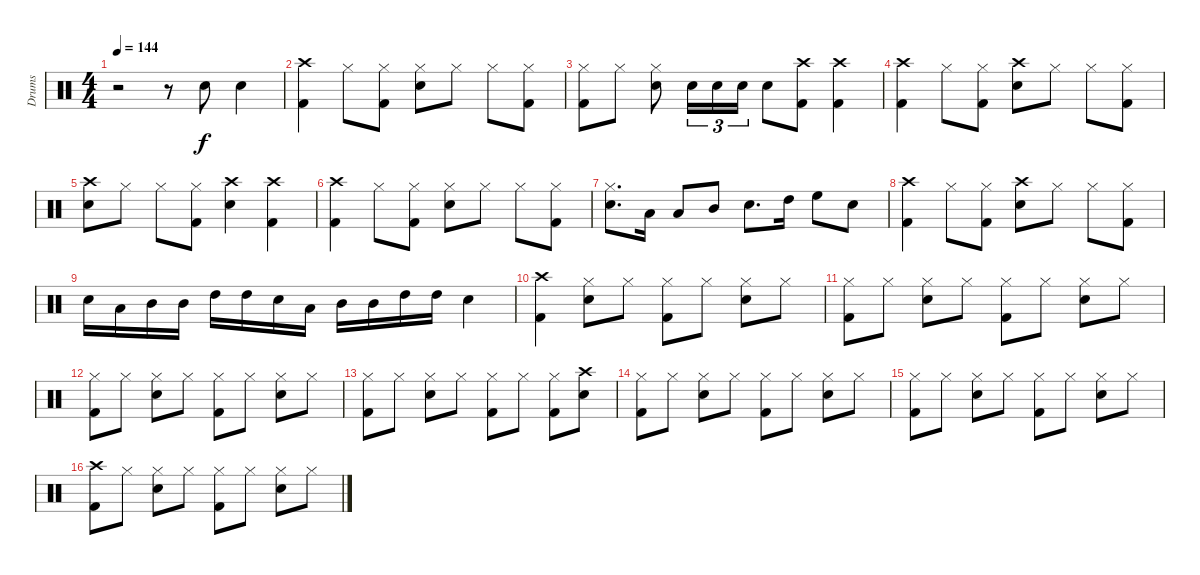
\track ("Drums" "Drums") {instrument percussion}
\staff {score}
\articulation defaults
\ts (4 4)
\tempo 144
\clef neutral
\ks c
r.2{dy f} r.8 "Snare (hit) 2".8 "Snare (hit) 2".4 |
("Crash high (hit)" "Kick (hit) 2").4 "Hi-Hat (closed)".8 ("Hi-Hat (closed)" "Kick (hit) 2").8 ("Hi-Hat (closed)" "Snare (hit) 2").8 "Hi-Hat (closed)".8 "Hi-Hat (closed)".8 ("Hi-Hat (closed)" "Kick (hit) 2").8 |
("Hi-Hat (closed)" "Kick (hit) 2").8 "Hi-Hat (closed)".8 ("Hi-Hat (closed)" "Snare (hit) 2").8 "Snare (hit) 2".16{tu (3 2)} "Snare (hit) 2".16{tu (3 2)} "Snare (hit) 2".16{tu (3 2)} "Snare (hit) 2".8 ("Crash high (hit)" "Kick (hit) 2").8 ("Crash high (hit)" "Kick (hit) 2").4 |
("Crash high (hit)" "Kick (hit) 2").4 "Hi-Hat (closed)".8 ("Hi-Hat (closed)" "Kick (hit) 2").8 ("Crash high (hit)" "Snare (hit) 2").8 "Hi-Hat (closed)".8 "Hi-Hat (closed)".8 ("Hi-Hat (closed)" "Kick (hit) 2").8 |
("Crash high (hit)" "Snare (hit) 2").8 "Hi-Hat (closed)".8 "Hi-Hat (closed)".8 ("Hi-Hat (closed)" "Kick (hit) 2").8 ("Crash high (hit)" "Snare (hit) 2").4 ("Crash high (hit)" "Kick (hit) 2").4 |
("Crash high (hit)" "Kick (hit) 2").4 "Hi-Hat (closed)".8 ("Hi-Hat (closed)" "Kick (hit) 2").8 ("Hi-Hat (closed)" "Snare (hit) 2").8 "Hi-Hat (closed)".8 "Hi-Hat (closed)".8 ("Hi-Hat (closed)" "Kick (hit) 2").8 |
("Hi-Hat (closed)" "Snare (hit) 2").8{d} "Low Tom (hit)".16 "Low Tom (hit)".8 "Mid Tom (hit)".8 "Snare (hit) 2".8{d} "High Tom (hit)".16 "High Floor Tom (hit)".8 "Snare (hit) 2".8 |
("Crash high (hit)" "Kick (hit) 2").4 "Hi-Hat (closed)".8 ("Hi-Hat (closed)" "Kick (hit) 2").8 ("Crash high (hit)" "Snare (hit) 2").8 "Hi-Hat (closed)".8 "Hi-Hat (closed)".8 ("Hi-Hat (closed)" "Kick (hit) 2").8 |
"Snare (hit) 2".16 "Low Tom (hit)".16 "Mid Tom (hit)".16 "Mid Tom (hit)".16 "High Tom (hit)".16 "High Tom (hit)".16 "Snare (hit) 2".16 "Low Tom (hit)".16 "Mid Tom (hit)".16 "Mid Tom (hit)".16 "High Tom (hit)".16 "High Tom (hit)".16 "Snare (hit) 2".4 |
("Crash high (hit)" "Kick (hit) 2").4 ("Hi-Hat (closed)" "Snare (hit) 2").8 "Hi-Hat (closed)".8 ("Hi-Hat (closed)" "Kick (hit) 2").8 "Hi-Hat (closed)".8 ("Hi-Hat (closed)" "Snare (hit) 2").8 "Hi-Hat (closed)".8 |
("Hi-Hat (closed)" "Kick (hit) 2").8 "Hi-Hat (closed)".8 ("Hi-Hat (closed)" "Snare (hit) 2").8 "Hi-Hat (closed)".8 ("Hi-Hat (closed)" "Kick (hit) 2").8 "Hi-Hat (closed)".8 ("Hi-Hat (closed)" "Snare (hit) 2").8 "Hi-Hat (closed)".8 |
("Hi-Hat (closed)" "Kick (hit) 2").8 "Hi-Hat (closed)".8 ("Hi-Hat (closed)" "Snare (hit) 2").8 "Hi-Hat (closed)".8 ("Hi-Hat (closed)" "Kick (hit) 2").8 "Hi-Hat (closed)".8 ("Hi-Hat (closed)" "Snare (hit) 2").8 "Hi-Hat (closed)".8 |
("Hi-Hat (closed)" "Kick (hit) 2").8 "Hi-Hat (closed)".8 ("Hi-Hat (closed)" "Snare (hit) 2").8 "Hi-Hat (closed)".8 ("Hi-Hat (closed)" "Kick (hit) 2").8 "Hi-Hat (closed)".8 ("Hi-Hat (closed)" "Kick (hit) 2").8 ("Crash high (hit)" "Snare (hit) 2").8 |
("Hi-Hat (closed)" "Kick (hit) 2").8 "Hi-Hat (closed)".8 ("Hi-Hat (closed)" "Snare (hit) 2").8 "Hi-Hat (closed)".8 ("Hi-Hat (closed)" "Kick (hit) 2").8 "Hi-Hat (closed)".8 ("Hi-Hat (closed)" "Snare (hit) 2").8 "Hi-Hat (closed)".8 |
("Hi-Hat (closed)" "Kick (hit) 2").8 "Hi-Hat (closed)".8 ("Hi-Hat (closed)" "Snare (hit) 2").8 "Hi-Hat (closed)".8 ("Hi-Hat (closed)" "Kick (hit) 2").8 "Hi-Hat (closed)".8 ("Hi-Hat (closed)" "Snare (hit) 2").8 "Hi-Hat (closed)".8 |
("Crash high (hit)" "Kick (hit) 2").8 "Hi-Hat (closed)".8 ("Hi-Hat (closed)" "Snare (hit) 2").8 "Hi-Hat (closed)".8 ("Hi-Hat (closed)" "Kick (hit) 2").8 "Hi-Hat (closed)".8 ("Hi-Hat (closed)" "Snare (hit) 2").8 "Hi-Hat (closed)".8
